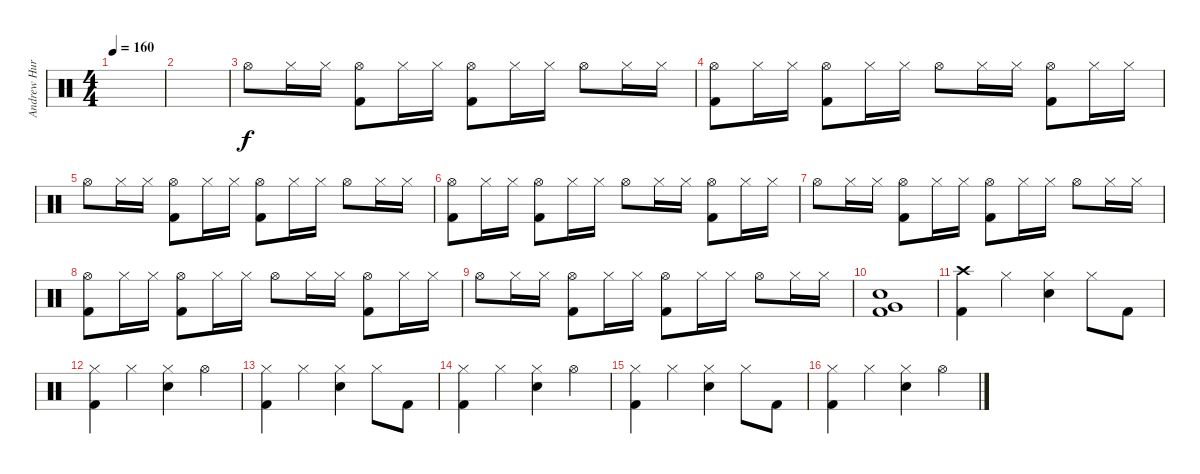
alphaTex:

\track ("Andrew Hurley (Drums)" "Andrew Hur") {instrument percussion}
\staff {score}
\articulation defaults
\ts (4 4)
\tempo 160
\clef neutral
\ks c
|
|
"Hi-Hat (open)".8 "Hi-Hat (closed)".16 "Hi-Hat (closed)".16 ("Hi-Hat (open)" "Kick (hit) 2").8 "Hi-Hat (closed)".16 "Hi-Hat (closed)".16 ("Hi-Hat (open)" "Kick (hit) 2").8 "Hi-Hat (closed)".16 "Hi-Hat (closed)".16 "Hi-Hat (open)".8 "Hi-Hat (closed)".16 "Hi-Hat (closed)".16 |
("Hi-Hat (open)" "Kick (hit) 2").8 "Hi-Hat (closed)".16 "Hi-Hat (closed)".16 ("Hi-Hat (open)" "Kick (hit) 2").8 "Hi-Hat (closed)".16 "Hi-Hat (closed)".16 "Hi-Hat (open)".8 "Hi-Hat (closed)".16 "Hi-Hat (closed)".16 ("Hi-Hat (open)" "Kick (hit) 2").8 "Hi-Hat (closed)".16 "Hi-Hat (closed)".16 |
"Hi-Hat (open)".8 "Hi-Hat (closed)".16 "Hi-Hat (closed)".16 ("Hi-Hat (open)" "Kick (hit) 2").8 "Hi-Hat (closed)".16 "Hi-Hat (closed)".16 ("Hi-Hat (open)" "Kick (hit) 2").8 "Hi-Hat (closed)".16 "Hi-Hat (closed)".16 "Hi-Hat (open)".8 "Hi-Hat (closed)".16 "Hi-Hat (closed)".16 |
("Hi-Hat (open)" "Kick (hit) 2").8 "Hi-Hat (closed)".16 "Hi-Hat (closed)".16 ("Hi-Hat (open)" "Kick (hit) 2").8 "Hi-Hat (closed)".16 "Hi-Hat (closed)".16 "Hi-Hat (open)".8 "Hi-Hat (closed)".16 "Hi-Hat (closed)".16 ("Hi-Hat (open)" "Kick (hit) 2").8 "Hi-Hat (closed)".16 "Hi-Hat (closed)".16 |
"Hi-Hat (open)".8 "Hi-Hat (closed)".16 "Hi-Hat (closed)".16 ("Hi-Hat (open)" "Kick (hit) 2").8 "Hi-Hat (closed)".16 "Hi-Hat (closed)".16 ("Hi-Hat (open)" "Kick (hit) 2").8 "Hi-Hat (closed)".16 "Hi-Hat (closed)".16 "Hi-Hat (open)".8 "Hi-Hat (closed)".16 "Hi-Hat (closed)".16 |
("Hi-Hat (open)" "Kick (hit) 2").8 "Hi-Hat (closed)".16 "Hi-Hat (closed)".16 ("Hi-Hat (open)" "Kick (hit) 2").8 "Hi-Hat (closed)".16 "Hi-Hat (closed)".16 "Hi-Hat (open)".8 "Hi-Hat (closed)".16 "Hi-Hat (closed)".16 ("Hi-Hat (open)" "Kick (hit) 2").8 "Hi-Hat (closed)".16 "Hi-Hat (closed)".16 |
"Hi-Hat (open)".8 "Hi-Hat (closed)".16 "Hi-Hat (closed)".16 ("Hi-Hat (open)" "Kick (hit) 2").8 "Hi-Hat (closed)".16 "Hi-Hat (closed)".16 ("Hi-Hat (open)" "Kick (hit) 2").8 "Hi-Hat (closed)".16 "Hi-Hat (closed)".16 "Hi-Hat (open)".8 "Hi-Hat (closed)".16 "Hi-Hat (closed)".16 |
("Very Low Tom (hit)" "Snare (hit) 2" "Kick (hit) 2").1 |
("Crash high (hit)" "Kick (hit) 2").4 "Hi-Hat (closed)".4 ("Hi-Hat (closed)" "Snare (hit) 2").4 "Hi-Hat (closed)".8 "Kick (hit) 2".8 |
("Hi-Hat (closed)" "Kick (hit) 2").4 "Hi-Hat (closed)".4 ("Hi-Hat (closed)" "Snare (hit) 2").4 "Hi-Hat (open)".4 |
("Hi-Hat (closed)" "Kick (hit) 2").4 "Hi-Hat (closed)".4 ("Hi-Hat (closed)" "Snare (hit) 2").4 "Hi-Hat (closed)".8 "Kick (hit) 2".8 |
("Hi-Hat (closed)" "Kick (hit) 2").4 "Hi-Hat (closed)".4 ("Hi-Hat (closed)" "Snare (hit) 2").4 "Hi-Hat (open)".4 |
("Hi-Hat (closed)" "Kick (hit) 2").4 "Hi-Hat (closed)".4 ("Hi-Hat (closed)" "Snare (hit) 2").4 "Hi-Hat (closed)".8 "Kick (hit) 2".8 |
("Hi-Hat (closed)" "Kick (hit) 2").4 "Hi-Hat (closed)".4 ("Hi-Hat (closed)" "Snare (hit) 2").4 "Hi-Hat (open)".4
